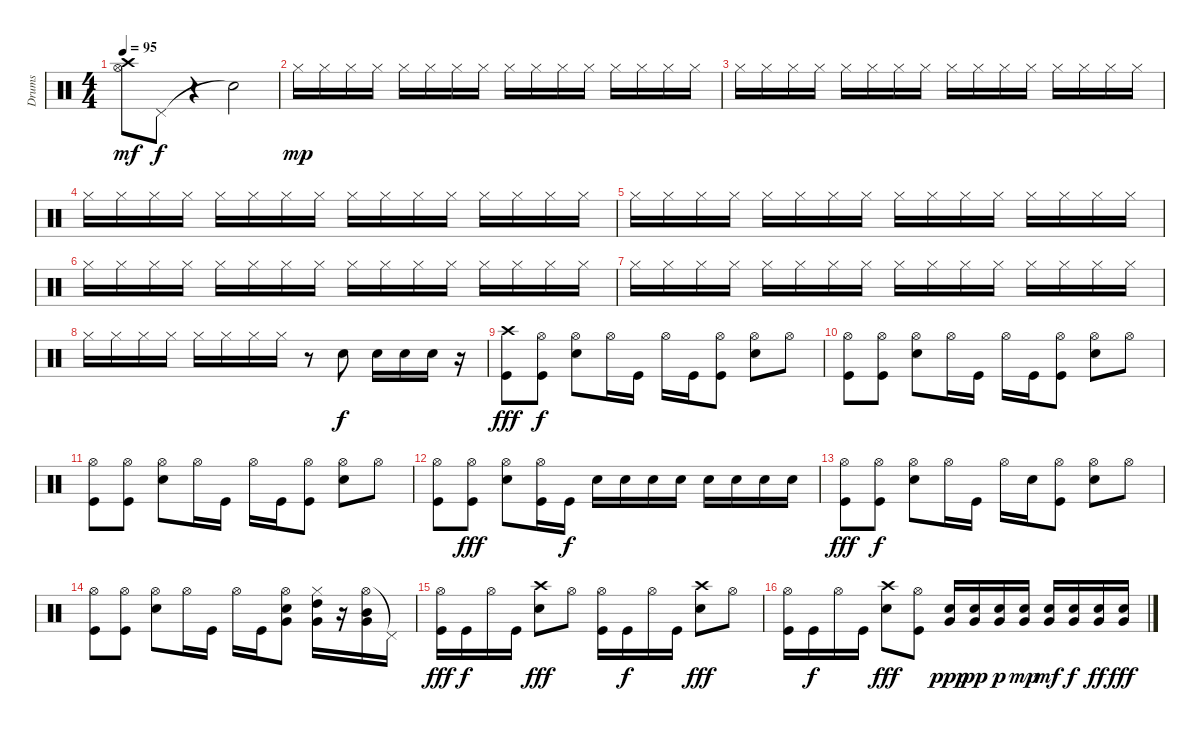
\track ("Drums" "Drums") {instrument percussion}
\staff {score}
\articulation defaults
\ts (4 4)
\tempo 95
\clef neutral
\ks c
("Crash high (hit)" "Hi-Hat (open)").8{dy mf} "Pedal Hi-Hat (hit)".8{dy f} r.4 "Snare (hit)"{t}.2 |
"Hi-Hat (closed)".16{dy mp} "Hi-Hat (closed)".16 "Hi-Hat (closed)".16 "Hi-Hat (closed)".16 "Hi-Hat (closed)".16 "Hi-Hat (closed)".16 "Hi-Hat (closed)".16 "Hi-Hat (closed)".16 "Hi-Hat (closed)".16 "Hi-Hat (closed)".16 "Hi-Hat (closed)".16 "Hi-Hat (closed)".16 "Hi-Hat (closed)".16 "Hi-Hat (closed)".16 "Hi-Hat (closed)".16 "Hi-Hat (closed)".16 |
"Hi-Hat (closed)".16 "Hi-Hat (closed)".16 "Hi-Hat (closed)".16 "Hi-Hat (closed)".16 "Hi-Hat (closed)".16 "Hi-Hat (closed)".16 "Hi-Hat (closed)".16 "Hi-Hat (closed)".16 "Hi-Hat (closed)".16 "Hi-Hat (closed)".16 "Hi-Hat (closed)".16 "Hi-Hat (closed)".16 "Hi-Hat (closed)".16 "Hi-Hat (closed)".16 "Hi-Hat (closed)".16 "Hi-Hat (closed)".16 |
"Hi-Hat (closed)".16 "Hi-Hat (closed)".16 "Hi-Hat (closed)".16 "Hi-Hat (closed)".16 "Hi-Hat (closed)".16 "Hi-Hat (closed)".16 "Hi-Hat (closed)".16 "Hi-Hat (closed)".16 "Hi-Hat (closed)".16 "Hi-Hat (closed)".16 "Hi-Hat (closed)".16 "Hi-Hat (closed)".16 "Hi-Hat (closed)".16 "Hi-Hat (closed)".16 "Hi-Hat (closed)".16 "Hi-Hat (closed)".16 |
"Hi-Hat (closed)".16 "Hi-Hat (closed)".16 "Hi-Hat (closed)".16 "Hi-Hat (closed)".16 "Hi-Hat (closed)".16 "Hi-Hat (closed)".16 "Hi-Hat (closed)".16 "Hi-Hat (closed)".16 "Hi-Hat (closed)".16 "Hi-Hat (closed)".16 "Hi-Hat (closed)".16 "Hi-Hat (closed)".16 "Hi-Hat (closed)".16 "Hi-Hat (closed)".16 "Hi-Hat (closed)".16 "Hi-Hat (closed)".16 |
"Hi-Hat (closed)".16 "Hi-Hat (closed)".16 "Hi-Hat (closed)".16 "Hi-Hat (closed)".16 "Hi-Hat (closed)".16 "Hi-Hat (closed)".16 "Hi-Hat (closed)".16 "Hi-Hat (closed)".16 "Hi-Hat (closed)".16 "Hi-Hat (closed)".16 "Hi-Hat (closed)".16 "Hi-Hat (closed)".16 "Hi-Hat (closed)".16 "Hi-Hat (closed)".16 "Hi-Hat (closed)".16 "Hi-Hat (closed)".16 |
"Hi-Hat (closed)".16 "Hi-Hat (closed)".16 "Hi-Hat (closed)".16 "Hi-Hat (closed)".16 "Hi-Hat (closed)".16 "Hi-Hat (closed)".16 "Hi-Hat (closed)".16 "Hi-Hat (closed)".16 "Hi-Hat (closed)".16 "Hi-Hat (closed)".16 "Hi-Hat (closed)".16 "Hi-Hat (closed)".16 "Hi-Hat (closed)".16 "Hi-Hat (closed)".16 "Hi-Hat (closed)".16 "Hi-Hat (closed)".16 |
"Hi-Hat (closed)".16 "Hi-Hat (closed)".16 "Hi-Hat (closed)".16 "Hi-Hat (closed)".16 "Hi-Hat (closed)".16 "Hi-Hat (closed)".16 "Hi-Hat (closed)".16 "Hi-Hat (closed)".16 r.8 "Electric Snare (hit)".8{dy f} "Electric Snare (hit)".16 "Electric Snare (hit)".16 "Electric Snare (hit)".16 r.16 |
("Crash high (hit)" "Kick (hit)").8{dy fff} ("Hi-Hat (open)" "Kick (hit)").8{dy f} ("Hi-Hat (open)" "Electric Snare (hit)").8 "Hi-Hat (open)".16 "Kick (hit)".16 "Hi-Hat (open)".16 "Kick (hit)".16 ("Hi-Hat (open)" "Kick (hit)").8 ("Hi-Hat (open)" "Electric Snare (hit)").8 "Hi-Hat (open)".8 |
("Hi-Hat (open)" "Kick (hit)").8 ("Hi-Hat (open)" "Kick (hit)").8 ("Hi-Hat (open)" "Electric Snare (hit)").8 "Hi-Hat (open)".16 "Kick (hit)".16 "Hi-Hat (open)".16 "Kick (hit)".16 ("Hi-Hat (open)" "Kick (hit)").8 ("Hi-Hat (open)" "Electric Snare (hit)").8 "Hi-Hat (open)".8 |
("Hi-Hat (open)" "Kick (hit)").8 ("Hi-Hat (open)" "Kick (hit)").8 ("Hi-Hat (open)" "Electric Snare (hit)").8 "Hi-Hat (open)".16 "Kick (hit)".16 "Hi-Hat (open)".16 "Kick (hit)".16 ("Hi-Hat (open)" "Kick (hit)").8 ("Hi-Hat (open)" "Electric Snare (hit)").8 "Hi-Hat (open)".8 |
("Hi-Hat (open)" "Kick (hit)").8 ("Hi-Hat (open)" "Kick (hit)").8{dy fff} ("Hi-Hat (open)" "Electric Snare (hit)").8 ("Hi-Hat (open)" "Kick (hit)").16 "Kick (hit)".16{dy f} "Electric Snare (hit)".16 "Electric Snare (hit)".16 "Electric Snare (hit)".16 "Electric Snare (hit)".16 "Electric Snare (hit)".16 "Electric Snare (hit)".16 "Electric Snare (hit)".16 "Electric Snare (hit)".16 |
("Hi-Hat (open)" "Kick (hit)").8{dy fff} ("Hi-Hat (open)" "Kick (hit)").8{dy f} ("Hi-Hat (open)" "Electric Snare (hit)").8 "Hi-Hat (open)".16 "Kick (hit)".16 "Hi-Hat (open)".16 "Electric Snare (hit)".16 ("Hi-Hat (open)" "Kick (hit)").8 ("Hi-Hat (open)" "Electric Snare (hit)").8 "Hi-Hat (open)".8 |
("Hi-Hat (open)" "Kick (hit)").8 ("Hi-Hat (open)" "Kick (hit)").8 ("Hi-Hat (open)" "Electric Snare (hit)").8 "Hi-Hat (open)".16 "Kick (hit)".16 "Hi-Hat (open)".16 "Kick (hit)".16 ("Hi-Hat (open)" "Electric Snare (hit)" "Very Low Tom (hit)").8 ("Hi-Hat (closed)" "High Tom (hit)" "Very Low Tom (hit)").16 r.16 ("Hi-Hat (open)" "Mid Tom (hit)" "Very Low Tom (hit)").16 "Pedal Hi-Hat (hit)"{t}.16 |
("Hi-Hat (open)" "Kick (hit)").16{dy fff} "Kick (hit)".16{dy f} "Hi-Hat (open)".16 "Kick (hit)".16 ("Crash high (hit)" "Electric Snare (hit)").8{dy fff} "Hi-Hat (open)".8 ("Hi-Hat (open)" "Kick (hit)").16 "Kick (hit)".16{dy f} "Hi-Hat (open)".16 "Kick (hit)".16 ("Crash high (hit)" "Electric Snare (hit)").8{dy fff} "Hi-Hat (open)".8 |
("Hi-Hat (open)" "Kick (hit)").16 "Kick (hit)".16{dy f} "Hi-Hat (open)".16 "Kick (hit)".16 ("Crash high (hit)" "Electric Snare (hit)").8{dy fff} ("Hi-Hat (open)" "Kick (hit)").8 ("Electric Snare (hit)" "Very Low Tom (hit)").16{dy ppp} ("Electric Snare (hit)" "Very Low Tom (hit)").16{dy pp} ("Electric Snare (hit)" "Very Low Tom (hit)").16{dy p} ("Electric Snare (hit)" "Very Low Tom (hit)").16{dy mp} ("Electric Snare (hit)" "Very Low Tom (hit)").16{dy mf} ("Electric Snare (hit)" "Very Low Tom (hit)").16{dy f} ("Electric Snare (hit)" "Very Low Tom (hit)").16{dy ff} ("Electric Snare (hit)" "Very Low Tom (hit)").16{dy fff}
